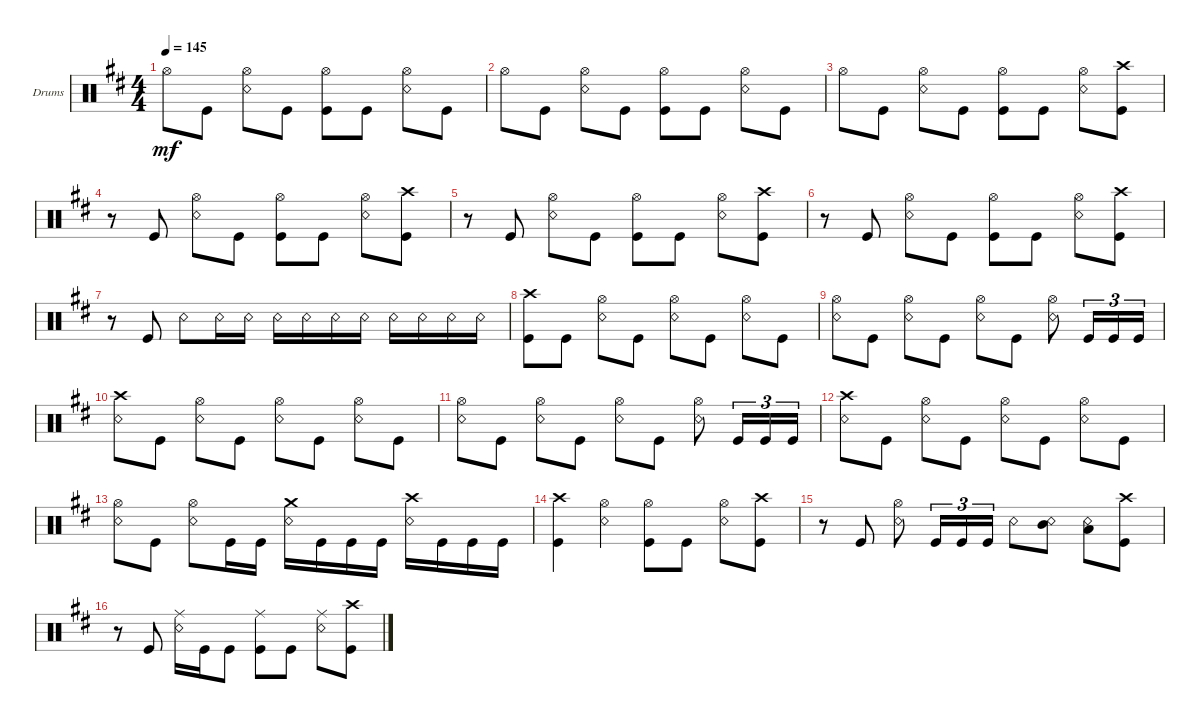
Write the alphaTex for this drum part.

\defaultSystemsLayout 4
\bracketExtendMode groupsimilarinstruments
\firstSystemTrackNameOrientation horizontal
\otherSystemsTrackNameOrientation horizontal
\track ("Drumkit" "Drums") {instrument percussion}
\staff {score}
\articulation defaults
\ts (4 4)
\tempo 145
\clef neutral
\ks bminor "Hi-Hat (open)".8{dy mf} "Kick (hit)".8
("Snare (rim shot)" "Hi-Hat (open)").8 "Kick (hit)".8 ("Kick (hit)" "Hi-Hat (open)").8 "Kick (hit)".8 ("Snare (rim shot)" "Hi-Hat (open)").8 "Kick (hit)".8 |
"Hi-Hat (open)".8 "Kick (hit)".8 ("Snare (rim shot)" "Hi-Hat (open)").8 "Kick (hit)".8 ("Kick (hit)" "Hi-Hat (open)").8 "Kick (hit)".8 ("Snare (rim shot)" "Hi-Hat (open)").8 "Kick (hit)".8 |
"Hi-Hat (open)".8 "Kick (hit)".8 ("Snare (rim shot)" "Hi-Hat (open)").8 "Kick (hit)".8 ("Kick (hit)" "Hi-Hat (open)").8 "Kick (hit)".8 ("Snare (rim shot)" "Hi-Hat (open)").8 ("Kick (hit)" "Crash high (hit)").8 |
r.8 "Kick (hit)".8 ("Snare (rim shot)" "Hi-Hat (open)").8 "Kick (hit)".8 ("Kick (hit)" "Hi-Hat (open)").8 "Kick (hit)".8 ("Snare (rim shot)" "Hi-Hat (open)").8 ("Kick (hit)" "Crash high (hit)").8 |
r.8 "Kick (hit)".8 ("Snare (rim shot)" "Hi-Hat (open)").8 "Kick (hit)".8 ("Kick (hit)" "Hi-Hat (open)").8 "Kick (hit)".8 ("Snare (rim shot)" "Hi-Hat (open)").8 ("Kick (hit)" "Crash high (hit)").8 |
r.8 "Kick (hit)".8 ("Snare (rim shot)" "Hi-Hat (open)").8 "Kick (hit)".8 ("Kick (hit)" "Hi-Hat (open)").8 "Kick (hit)".8 ("Snare (rim shot)" "Hi-Hat (open)").8 ("Kick (hit)" "Crash high (hit)").8 |
r.8 "Kick (hit)".8 "Snare (rim shot)".8 "Snare (rim shot)".16 "Snare (rim shot)".16 "Snare (rim shot)".16 "Snare (rim shot)".16 "Snare (rim shot)".16 "Snare (rim shot)".16 "Snare (rim shot)".16 "Snare (rim shot)".16 "Snare (rim shot)".16 "Snare (rim shot)".16 |
("Kick (hit)" "Crash high (hit)").8 "Kick (hit)".8 ("Snare (rim shot)" "Hi-Hat (open)").8 "Kick (hit)".8 ("Snare (rim shot)" "Hi-Hat (open)").8 "Kick (hit)".8 ("Snare (rim shot)" "Hi-Hat (open)").8 "Kick (hit)".8 |
("Snare (rim shot)" "Hi-Hat (open)").8 "Kick (hit)".8 ("Snare (rim shot)" "Hi-Hat (open)").8 "Kick (hit)".8 ("Snare (rim shot)" "Hi-Hat (open)").8 "Kick (hit)".8 ("Snare (rim shot)" "Hi-Hat (open)").8 "Kick (hit)".16{tu (3 2)} "Kick (hit)".16{tu (3 2)} "Kick (hit)".16{tu (3 2)} |
("Snare (rim shot)" "Crash high (hit)").8 "Kick (hit)".8 ("Snare (rim shot)" "Hi-Hat (open)").8 "Kick (hit)".8 ("Snare (rim shot)" "Hi-Hat (open)").8 "Kick (hit)".8 ("Snare (rim shot)" "Hi-Hat (open)").8 "Kick (hit)".8 |
("Snare (rim shot)" "Hi-Hat (open)").8 "Kick (hit)".8 ("Snare (rim shot)" "Hi-Hat (open)").8 "Kick (hit)".8 ("Snare (rim shot)" "Hi-Hat (open)").8 "Kick (hit)".8 ("Snare (rim shot)" "Hi-Hat (open)").8 "Kick (hit)".16{tu (3 2)} "Kick (hit)".16{tu (3 2)} "Kick (hit)".16{tu (3 2)} |
("Snare (rim shot)" "Crash high (hit)").8 "Kick (hit)".8 ("Snare (rim shot)" "Hi-Hat (open)").8 "Kick (hit)".8 ("Snare (rim shot)" "Hi-Hat (open)").8 "Kick (hit)".8 ("Snare (rim shot)" "Hi-Hat (open)").8 "Kick (hit)".8 |
("Snare (rim shot)" "Hi-Hat (open)").8 "Kick (hit)".8 ("Snare (rim shot)" "Hi-Hat (open)").8 "Kick (hit)".16 "Kick (hit)".16 ("Snare (rim shot)" "Crash medium (hit)").16 "Kick (hit)".16 "Kick (hit)".16 "Kick (hit)".16 ("Snare (rim shot)" "Crash high (hit)").16 "Kick (hit)".16 "Kick (hit)".16 "Kick (hit)".16 |
("Kick (hit)" "Crash high (hit)").4 ("Snare (rim shot)" "Hi-Hat (open)").4 ("Kick (hit)" "Hi-Hat (open)").8 "Kick (hit)".8 ("Snare (rim shot)" "Hi-Hat (open)").8 ("Kick (hit)" "Crash high (hit)").8 |
r.8 "Kick (hit)".8 ("Snare (rim shot)" "Hi-Hat (open)").8 "Kick (hit)".16{tu (3 2)} "Kick (hit)".16{tu (3 2)} "Kick (hit)".16{tu (3 2)} "Snare (rim shot)".8 ("Snare (rim shot)" "Mid Tom (hit)").8 ("Snare (rim shot)" "Low Tom (hit)").8 ("Kick (hit)" "Crash high (hit)").8 |
r.8 "Kick (hit)".8 ("Snare (rim shot)" "Ride (middle)").16 "Kick (hit)".16 "Kick (hit)".8 ("Kick (hit)" "Ride (middle)").8 "Kick (hit)".8 ("Snare (rim shot)" "Ride (middle)").8 ("Kick (hit)" "Crash high (hit)").8
